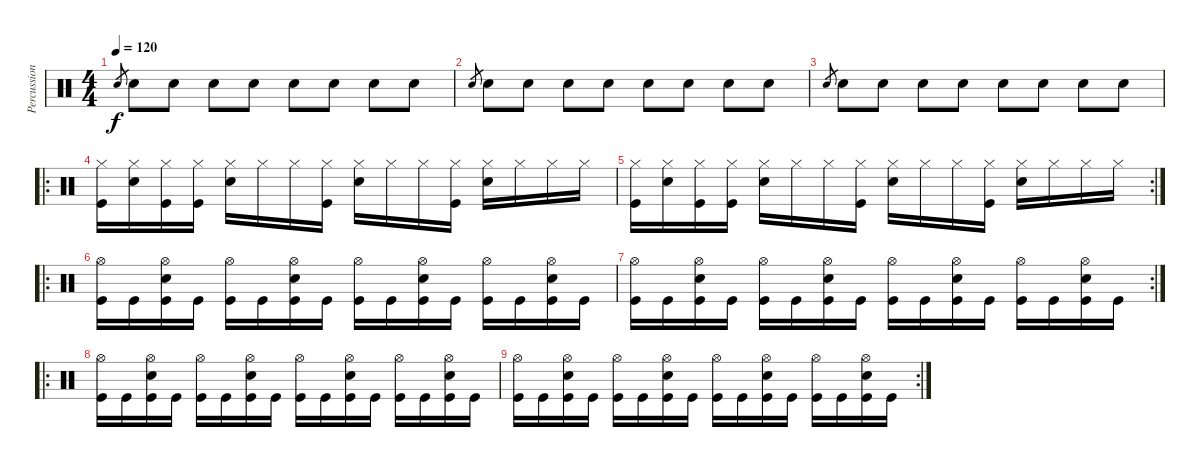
\track ("Percussion" "Percussion") {instrument percussion}
\staff {score}
\articulation defaults
\ts (4 4)
\tempo 120
\clef neutral
\ks c "Snare (hit) 2".8{gr dy f} "Snare (hit) 2".8 "Snare (hit) 2".8 "Snare (hit) 2".8 "Snare (hit) 2".8 "Snare (hit) 2".8 "Snare (hit) 2".8 "Snare (hit) 2".8 "Snare (hit) 2".8
|
"Snare (hit) 2".8{gr} "Snare (hit) 2".8 "Snare (hit) 2".8 "Snare (hit) 2".8 "Snare (hit) 2".8 "Snare (hit) 2".8 "Snare (hit) 2".8 "Snare (hit) 2".8 "Snare (hit) 2".8 |
"Snare (hit) 2".8{gr} "Snare (hit) 2".8 "Snare (hit) 2".8 "Snare (hit) 2".8 "Snare (hit) 2".8 "Snare (hit) 2".8 "Snare (hit) 2".8 "Snare (hit) 2".8 "Snare (hit) 2".8 |
\ro
("Hi-Hat (closed)" "Kick (hit)").16 ("Hi-Hat (closed)" "Snare (hit) 2").16 ("Hi-Hat (closed)" "Kick (hit)").16 ("Hi-Hat (closed)" "Kick (hit)").16 ("Hi-Hat (closed)" "Snare (hit) 2").16 "Hi-Hat (closed)".16 "Hi-Hat (closed)".16 ("Hi-Hat (closed)" "Kick (hit)").16 ("Hi-Hat (closed)" "Snare (hit) 2").16 "Hi-Hat (closed)".16 "Hi-Hat (closed)".16 ("Hi-Hat (closed)" "Kick (hit)").16 ("Hi-Hat (closed)" "Snare (hit) 2").16 "Hi-Hat (closed)".16 "Hi-Hat (closed)".16 "Hi-Hat (closed)".16 |
\rc 2
("Hi-Hat (closed)" "Kick (hit)").16 ("Hi-Hat (closed)" "Snare (hit) 2").16 ("Hi-Hat (closed)" "Kick (hit)").16 ("Hi-Hat (closed)" "Kick (hit)").16 ("Hi-Hat (closed)" "Snare (hit) 2").16 "Hi-Hat (closed)".16 "Hi-Hat (closed)".16 ("Hi-Hat (closed)" "Kick (hit)").16 ("Hi-Hat (closed)" "Snare (hit) 2").16 "Hi-Hat (closed)".16 "Hi-Hat (closed)".16 ("Hi-Hat (closed)" "Kick (hit)").16 ("Hi-Hat (closed)" "Snare (hit) 2").16 "Hi-Hat (closed)".16 "Hi-Hat (closed)".16 "Hi-Hat (closed)".16 |
\ro
("Hi-Hat (open)" "Kick (hit)").16 "Kick (hit)".16 ("Hi-Hat (open)" "Snare (hit) 2" "Kick (hit)").16 "Kick (hit)".16 ("Hi-Hat (open)" "Kick (hit)").16 "Kick (hit)".16 ("Hi-Hat (open)" "Snare (hit) 2" "Kick (hit)").16 "Kick (hit)".16 ("Hi-Hat (open)" "Kick (hit)").16 "Kick (hit)".16 ("Hi-Hat (open)" "Snare (hit) 2" "Kick (hit)").16 "Kick (hit)".16 ("Hi-Hat (open)" "Kick (hit)").16 "Kick (hit)".16 ("Hi-Hat (open)" "Snare (hit) 2" "Kick (hit)").16 "Kick (hit)".16 |
\rc 2
("Hi-Hat (open)" "Kick (hit)").16 "Kick (hit)".16 ("Hi-Hat (open)" "Snare (hit) 2" "Kick (hit)").16 "Kick (hit)".16 ("Hi-Hat (open)" "Kick (hit)").16 "Kick (hit)".16 ("Hi-Hat (open)" "Snare (hit) 2" "Kick (hit)").16 "Kick (hit)".16 ("Hi-Hat (open)" "Kick (hit)").16 "Kick (hit)".16 ("Hi-Hat (open)" "Snare (hit) 2" "Kick (hit)").16 "Kick (hit)".16 ("Hi-Hat (open)" "Kick (hit)").16 "Kick (hit)".16 ("Hi-Hat (open)" "Snare (hit) 2" "Kick (hit)").16 "Kick (hit)".16 |
\ro
("Hi-Hat (open)" "Kick (hit)").16 "Kick (hit)".16 ("Hi-Hat (open)" "Snare (hit) 2" "Kick (hit)").16 "Kick (hit)".16 ("Hi-Hat (open)" "Kick (hit)").16 "Kick (hit)".16 ("Hi-Hat (open)" "Snare (hit) 2" "Kick (hit)").16 "Kick (hit)".16 ("Hi-Hat (open)" "Kick (hit)").16 "Kick (hit)".16 ("Hi-Hat (open)" "Snare (hit) 2" "Kick (hit)").16 "Kick (hit)".16 ("Hi-Hat (open)" "Kick (hit)").16 "Kick (hit)".16 ("Hi-Hat (open)" "Snare (hit) 2" "Kick (hit)").16 "Kick (hit)".16 |
\rc 2
("Hi-Hat (open)" "Kick (hit)").16 "Kick (hit)".16 ("Hi-Hat (open)" "Snare (hit) 2" "Kick (hit)").16 "Kick (hit)".16 ("Hi-Hat (open)" "Kick (hit)").16 "Kick (hit)".16 ("Hi-Hat (open)" "Snare (hit) 2" "Kick (hit)").16 "Kick (hit)".16 ("Hi-Hat (open)" "Kick (hit)").16 "Kick (hit)".16 ("Hi-Hat (open)" "Snare (hit) 2" "Kick (hit)").16 "Kick (hit)".16 ("Hi-Hat (open)" "Kick (hit)").16 "Kick (hit)".16 ("Hi-Hat (open)" "Snare (hit) 2" "Kick (hit)").16 "Kick (hit)".16
